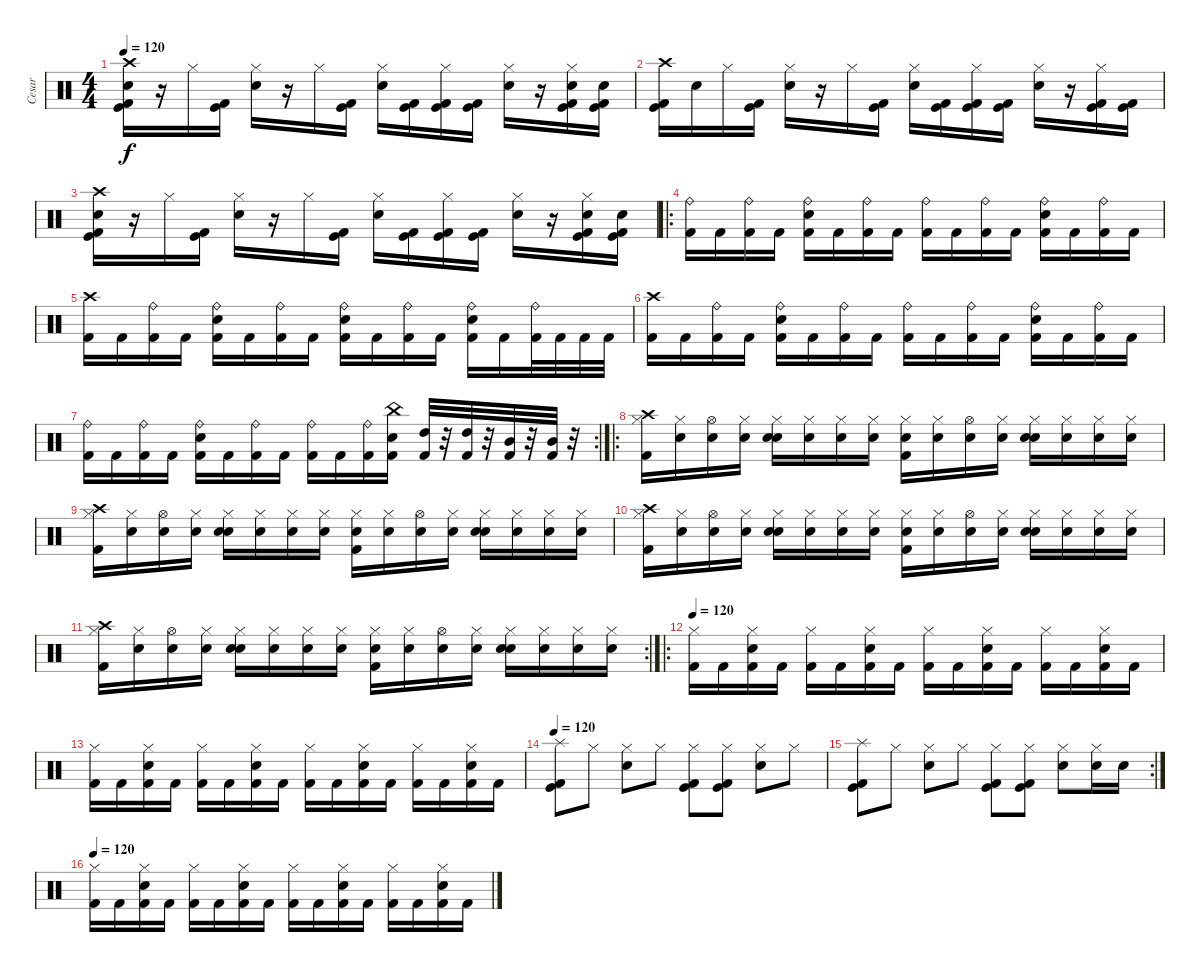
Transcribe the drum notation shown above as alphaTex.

\track ("Cesar" "Cesar") {instrument percussion}
\staff {score}
\articulation defaults
\ts (4 4)
\tempo 120
\clef neutral
\ks c
("Crash high (hit)" "Electric Snare (hit)" "Kick (hit) 2" "Kick (hit)").16{dy f} r.16 "Hi-Hat (closed)".16 ("Kick (hit)" "Kick (hit) 2").16 ("Hi-Hat (closed)" "Electric Snare (hit)").16 r.16 "Hi-Hat (closed)".16 ("Kick (hit) 2" "Kick (hit)").16 ("Hi-Hat (closed)" "Electric Snare (hit)").16 ("Kick (hit) 2" "Kick (hit)").16 ("Hi-Hat (closed)" "Kick (hit) 2" "Kick (hit)").16 ("Kick (hit) 2" "Kick (hit)").16 ("Hi-Hat (closed)" "Electric Snare (hit)").16 r.16 ("Hi-Hat (closed)" "Electric Snare (hit)" "Kick (hit) 2" "Kick (hit)").16 ("Electric Snare (hit)" "Kick (hit) 2" "Kick (hit)").16 |
("Crash high (hit)" "Kick (hit) 2" "Kick (hit)").16 "Electric Snare (hit)".16 "Hi-Hat (closed)".16 ("Kick (hit)" "Kick (hit) 2").16 ("Hi-Hat (closed)" "Electric Snare (hit)").16 r.16 "Hi-Hat (closed)".16 ("Kick (hit) 2" "Kick (hit)").16 ("Hi-Hat (closed)" "Electric Snare (hit)").16 ("Kick (hit) 2" "Kick (hit)").16 ("Hi-Hat (closed)" "Kick (hit) 2" "Kick (hit)").16 ("Kick (hit) 2" "Kick (hit)").16 ("Hi-Hat (closed)" "Electric Snare (hit)").16 r.16 ("Hi-Hat (closed)" "Kick (hit) 2" "Kick (hit)").16 ("Kick (hit) 2" "Kick (hit)").16 |
("Crash high (hit)" "Electric Snare (hit)" "Kick (hit) 2" "Kick (hit)").16 r.16 "Hi-Hat (closed)".16 ("Kick (hit)" "Kick (hit) 2").16 ("Hi-Hat (closed)" "Electric Snare (hit)").16 r.16 "Hi-Hat (closed)".16 ("Kick (hit) 2" "Kick (hit)").16 ("Hi-Hat (closed)" "Electric Snare (hit)").16 ("Kick (hit) 2" "Kick (hit)").16 ("Hi-Hat (closed)" "Kick (hit) 2" "Kick (hit)").16 ("Kick (hit) 2" "Kick (hit)").16 ("Hi-Hat (closed)" "Electric Snare (hit)").16 r.16 ("Hi-Hat (closed)" "Electric Snare (hit)" "Kick (hit) 2" "Kick (hit)").16 ("Electric Snare (hit)" "Kick (hit) 2" "Kick (hit)").16 |
\ro
("Ride (bell)" "Kick (hit) 2").16 "Kick (hit) 2".16 ("Ride (bell)" "Kick (hit) 2").16 "Kick (hit) 2".16 ("Ride (bell)" "Kick (hit) 2" "Electric Snare (hit)").16 "Kick (hit) 2".16 ("Ride (bell)" "Kick (hit) 2").16 "Kick (hit) 2".16 ("Ride (bell)" "Kick (hit) 2").16 "Kick (hit) 2".16 ("Ride (bell)" "Kick (hit) 2").16 "Kick (hit) 2".16 ("Ride (bell)" "Kick (hit) 2" "Electric Snare (hit)").16 "Kick (hit) 2".16 ("Ride (bell)" "Kick (hit) 2").16 "Kick (hit) 2".16 |
("Crash high (hit)" "Kick (hit) 2").16 "Kick (hit) 2".16 ("Ride (bell)" "Kick (hit) 2").16 "Kick (hit) 2".16 ("Ride (bell)" "Kick (hit) 2" "Electric Snare (hit)").16 "Kick (hit) 2".16 ("Ride (bell)" "Kick (hit) 2").16 "Kick (hit) 2".16 ("Ride (bell)" "Kick (hit) 2" "Electric Snare (hit)").16 "Kick (hit) 2".16 ("Ride (bell)" "Kick (hit) 2").16 "Kick (hit) 2".16 ("Ride (bell)" "Kick (hit) 2" "Electric Snare (hit)").16 "Kick (hit) 2".16 ("Ride (bell)" "Kick (hit) 2").32 "Kick (hit) 2".32 "Kick (hit) 2".32 "Kick (hit) 2".32 |
("Crash high (hit)" "Kick (hit) 2").16 "Kick (hit) 2".16 ("Ride (bell)" "Kick (hit) 2").16 "Kick (hit) 2".16 ("Ride (bell)" "Kick (hit) 2" "Electric Snare (hit)").16 "Kick (hit) 2".16 ("Ride (bell)" "Kick (hit) 2").16 "Kick (hit) 2".16 ("Ride (bell)" "Kick (hit) 2").16 "Kick (hit) 2".16 ("Ride (bell)" "Kick (hit) 2").16 "Kick (hit) 2".16 ("Ride (bell)" "Kick (hit) 2" "Electric Snare (hit)").16 "Kick (hit) 2".16 ("Ride (bell)" "Kick (hit) 2").16 "Kick (hit) 2".16 |
\rc 2
("Ride (bell)" "Kick (hit) 2").16 "Kick (hit) 2".16 ("Ride (bell)" "Kick (hit) 2").16 "Kick (hit) 2".16 ("Ride (bell)" "Kick (hit) 2" "Electric Snare (hit)").16 "Kick (hit) 2".16 ("Ride (bell)" "Kick (hit) 2").16 "Kick (hit) 2".16 ("Ride (bell)" "Kick (hit) 2").16 "Kick (hit) 2".16 ("Ride (bell)" "Kick (hit) 2").16 ("China (hit)" "Electric Snare (hit)" "Kick (hit) 2").16 ("High Tom (hit)" "Kick (hit) 2").32 r.32 ("High Tom (hit)" "Kick (hit) 2").32 r.32 ("Mid Tom (hit)" "Kick (hit) 2").32 r.32 ("Mid Tom (hit)" "Kick (hit) 2").32 r.32 |
\ro
("Kick (hit) 2" "Hi-Hat (closed)" "Crash high (hit)").16 ("Snare (hit)" "Hi-Hat (closed)").16 ("Snare (hit)" "Hi-Hat (open)").16 ("Snare (hit)" "Hi-Hat (closed)").16 ("Snare (hit)" "Snare (hit) 2" "Hi-Hat (closed)").16 ("Snare (hit)" "Hi-Hat (closed)").16 ("Snare (hit)" "Hi-Hat (closed)").16 ("Snare (hit)" "Hi-Hat (closed)").16 ("Snare (hit)" "Kick (hit) 2" "Hi-Hat (closed)").16 ("Snare (hit)" "Hi-Hat (closed)").16 ("Snare (hit)" "Hi-Hat (open)").16 ("Snare (hit)" "Hi-Hat (closed)").16 ("Snare (hit)" "Snare (hit) 2" "Hi-Hat (closed)").16 ("Snare (hit)" "Hi-Hat (closed)").16 ("Snare (hit)" "Hi-Hat (closed)").16 ("Snare (hit)" "Hi-Hat (closed)").16 |
("Kick (hit) 2" "Hi-Hat (closed)" "Crash high (hit)").16 ("Snare (hit)" "Hi-Hat (closed)").16 ("Snare (hit)" "Hi-Hat (open)").16 ("Snare (hit)" "Hi-Hat (closed)").16 ("Snare (hit)" "Snare (hit) 2" "Hi-Hat (closed)").16 ("Snare (hit)" "Hi-Hat (closed)").16 ("Snare (hit)" "Hi-Hat (closed)").16 ("Snare (hit)" "Hi-Hat (closed)").16 ("Snare (hit)" "Kick (hit) 2" "Hi-Hat (closed)").16 ("Snare (hit)" "Hi-Hat (closed)").16 ("Snare (hit)" "Hi-Hat (open)").16 ("Snare (hit)" "Hi-Hat (closed)").16 ("Snare (hit)" "Snare (hit) 2" "Hi-Hat (closed)").16 ("Snare (hit)" "Hi-Hat (closed)").16 ("Snare (hit)" "Hi-Hat (closed)").16 ("Snare (hit)" "Hi-Hat (closed)").16 |
("Kick (hit) 2" "Hi-Hat (closed)" "Crash high (hit)").16 ("Snare (hit)" "Hi-Hat (closed)").16 ("Snare (hit)" "Hi-Hat (open)").16 ("Snare (hit)" "Hi-Hat (closed)").16 ("Snare (hit)" "Snare (hit) 2" "Hi-Hat (closed)").16 ("Snare (hit)" "Hi-Hat (closed)").16 ("Snare (hit)" "Hi-Hat (closed)").16 ("Snare (hit)" "Hi-Hat (closed)").16 ("Snare (hit)" "Kick (hit) 2" "Hi-Hat (closed)").16 ("Snare (hit)" "Hi-Hat (closed)").16 ("Snare (hit)" "Hi-Hat (open)").16 ("Snare (hit)" "Hi-Hat (closed)").16 ("Snare (hit)" "Snare (hit) 2" "Hi-Hat (closed)").16 ("Snare (hit)" "Hi-Hat (closed)").16 ("Snare (hit)" "Hi-Hat (closed)").16 ("Snare (hit)" "Hi-Hat (closed)").16 |
\rc 2
("Kick (hit) 2" "Hi-Hat (closed)" "Crash high (hit)").16 ("Snare (hit)" "Hi-Hat (closed)").16 ("Snare (hit)" "Hi-Hat (open)").16 ("Snare (hit)" "Hi-Hat (closed)").16 ("Snare (hit)" "Snare (hit) 2" "Hi-Hat (closed)").16 ("Snare (hit)" "Hi-Hat (closed)").16 ("Snare (hit)" "Hi-Hat (closed)").16 ("Snare (hit)" "Hi-Hat (closed)").16 ("Snare (hit)" "Kick (hit) 2" "Hi-Hat (closed)").16 ("Snare (hit)" "Hi-Hat (closed)").16 ("Snare (hit)" "Hi-Hat (open)").16 ("Snare (hit)" "Hi-Hat (closed)").16 ("Snare (hit)" "Snare (hit) 2" "Hi-Hat (closed)").16 ("Snare (hit)" "Hi-Hat (closed)").16 ("Snare (hit)" "Hi-Hat (closed)").16 ("Snare (hit)" "Hi-Hat (closed)").16 |
\ro
\tempo 120
("Hi-Hat (closed)" "Kick (hit) 2").16 "Kick (hit) 2".16 ("Electric Snare (hit)" "Kick (hit) 2" "Hi-Hat (closed)").16 "Kick (hit) 2".16 ("Hi-Hat (closed)" "Kick (hit) 2").16 "Kick (hit) 2".16 ("Electric Snare (hit)" "Kick (hit) 2" "Hi-Hat (closed)").16 "Kick (hit) 2".16 ("Hi-Hat (closed)" "Kick (hit) 2").16 "Kick (hit) 2".16 ("Electric Snare (hit)" "Kick (hit) 2" "Hi-Hat (closed)").16 "Kick (hit) 2".16 ("Hi-Hat (closed)" "Kick (hit) 2").16 "Kick (hit) 2".16 ("Electric Snare (hit)" "Hi-Hat (closed)" "Kick (hit) 2").16 "Kick (hit) 2".16 |
("Hi-Hat (closed)" "Kick (hit) 2").16 "Kick (hit) 2".16 ("Electric Snare (hit)" "Kick (hit) 2" "Hi-Hat (closed)").16 "Kick (hit) 2".16 ("Hi-Hat (closed)" "Kick (hit) 2").16 "Kick (hit) 2".16 ("Electric Snare (hit)" "Kick (hit) 2" "Hi-Hat (closed)").16 "Kick (hit) 2".16 ("Hi-Hat (closed)" "Kick (hit) 2").16 "Kick (hit) 2".16 ("Electric Snare (hit)" "Kick (hit) 2" "Hi-Hat (closed)").16 "Kick (hit) 2".16 ("Hi-Hat (closed)" "Kick (hit) 2").16 "Kick (hit) 2".16 ("Electric Snare (hit)" "Hi-Hat (closed)" "Kick (hit) 2").16 "Kick (hit) 2".16 |
\tempo 120
("Splash (hit)" "Kick (hit) 2" "Kick (hit)").8 "Hi-Hat (closed)".8 ("Hi-Hat (closed)" "Electric Snare (hit)").8 "Hi-Hat (closed)".8 ("Hi-Hat (closed)" "Kick (hit) 2" "Kick (hit)").8 ("Hi-Hat (closed)" "Kick (hit) 2" "Kick (hit)").8 ("Hi-Hat (closed)" "Electric Snare (hit)").8 "Hi-Hat (closed)".8 |
\rc 2
("Splash (hit)" "Kick (hit) 2" "Kick (hit)").8 "Hi-Hat (closed)".8 ("Hi-Hat (closed)" "Electric Snare (hit)").8 "Hi-Hat (closed)".8 ("Hi-Hat (closed)" "Kick (hit) 2" "Kick (hit)").8 ("Hi-Hat (closed)" "Kick (hit) 2" "Kick (hit)").8 ("Hi-Hat (closed)" "Electric Snare (hit)").8 ("Hi-Hat (closed)" "Electric Snare (hit)").16 "Electric Snare (hit)".16 |
\tempo 120
("Hi-Hat (closed)" "Kick (hit) 2").16 "Kick (hit) 2".16 ("Electric Snare (hit)" "Kick (hit) 2" "Hi-Hat (closed)").16 "Kick (hit) 2".16 ("Hi-Hat (closed)" "Kick (hit) 2").16 "Kick (hit) 2".16 ("Electric Snare (hit)" "Kick (hit) 2" "Hi-Hat (closed)").16 "Kick (hit) 2".16 ("Hi-Hat (closed)" "Kick (hit) 2").16 "Kick (hit) 2".16 ("Electric Snare (hit)" "Kick (hit) 2" "Hi-Hat (closed)").16 "Kick (hit) 2".16 ("Hi-Hat (closed)" "Kick (hit) 2").16 "Kick (hit) 2".16 ("Electric Snare (hit)" "Hi-Hat (closed)" "Kick (hit) 2").16 "Kick (hit) 2".16
